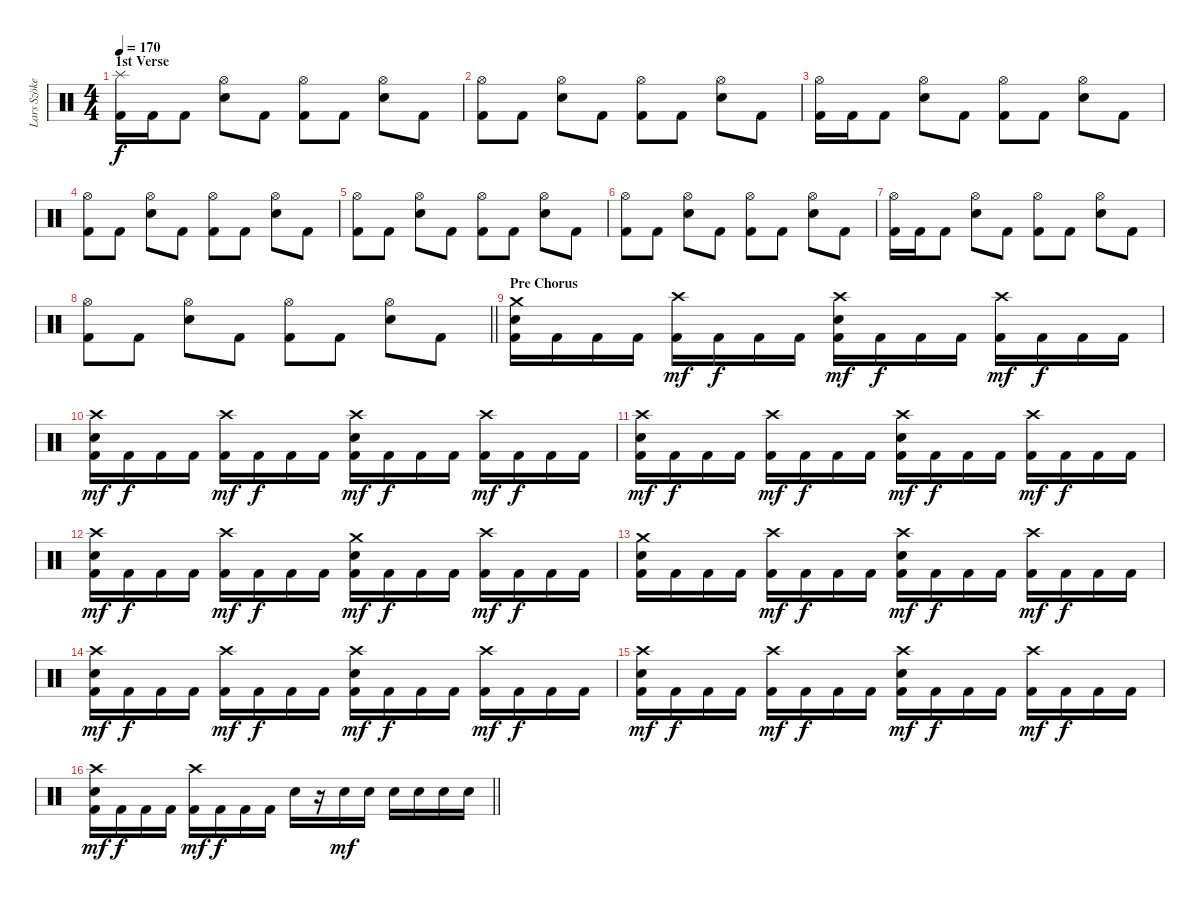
\track ("Lars Szöke" "Lars Szöke") {instrument percussion}
\staff {score}
\articulation defaults
\ts (4 4)
\section ("" "1st Verse")
\tempo 170
\clef neutral
\ks c
("Splash (hit)" "Kick (hit) 2").16{dy f} "Kick (hit) 2".16 "Kick (hit) 2".8 ("Hi-Hat (open)" "Snare (hit) 2").8 "Kick (hit) 2".8 ("Hi-Hat (open)" "Kick (hit) 2").8 "Kick (hit) 2".8 ("Hi-Hat (open)" "Snare (hit) 2").8 "Kick (hit) 2".8 |
("Hi-Hat (open)" "Kick (hit) 2").8 "Kick (hit) 2".8 ("Hi-Hat (open)" "Snare (hit) 2").8 "Kick (hit) 2".8 ("Hi-Hat (open)" "Kick (hit) 2").8 "Kick (hit) 2".8 ("Hi-Hat (open)" "Snare (hit) 2").8 "Kick (hit) 2".8 |
("Hi-Hat (open)" "Kick (hit) 2").16 "Kick (hit) 2".16 "Kick (hit) 2".8 ("Hi-Hat (open)" "Snare (hit) 2").8 "Kick (hit) 2".8 ("Hi-Hat (open)" "Kick (hit) 2").8 "Kick (hit) 2".8 ("Hi-Hat (open)" "Snare (hit) 2").8 "Kick (hit) 2".8 |
("Hi-Hat (open)" "Kick (hit) 2").8 "Kick (hit) 2".8 ("Hi-Hat (open)" "Snare (hit) 2").8 "Kick (hit) 2".8 ("Hi-Hat (open)" "Kick (hit) 2").8 "Kick (hit) 2".8 ("Hi-Hat (open)" "Snare (hit) 2").8 "Kick (hit) 2".8 |
("Hi-Hat (open)" "Kick (hit) 2").8 "Kick (hit) 2".8 ("Hi-Hat (open)" "Snare (hit) 2").8 "Kick (hit) 2".8 ("Hi-Hat (open)" "Kick (hit) 2").8 "Kick (hit) 2".8 ("Hi-Hat (open)" "Snare (hit) 2").8 "Kick (hit) 2".8 |
("Hi-Hat (open)" "Kick (hit) 2").8 "Kick (hit) 2".8 ("Hi-Hat (open)" "Snare (hit) 2").8 "Kick (hit) 2".8 ("Hi-Hat (open)" "Kick (hit) 2").8 "Kick (hit) 2".8 ("Hi-Hat (open)" "Snare (hit) 2").8 "Kick (hit) 2".8 |
("Hi-Hat (open)" "Kick (hit) 2").16 "Kick (hit) 2".16 "Kick (hit) 2".8 ("Hi-Hat (open)" "Snare (hit) 2").8 "Kick (hit) 2".8 ("Hi-Hat (open)" "Kick (hit) 2").8 "Kick (hit) 2".8 ("Hi-Hat (open)" "Snare (hit) 2").8 "Kick (hit) 2".8 |
\barLineRight lightlight
("Hi-Hat (open)" "Kick (hit) 2").8 "Kick (hit) 2".8 ("Hi-Hat (open)" "Snare (hit) 2").8 "Kick (hit) 2".8 ("Hi-Hat (open)" "Kick (hit) 2").8 "Kick (hit) 2".8 ("Hi-Hat (open)" "Snare (hit) 2").8 "Kick (hit) 2".8 |
\section ("" "Pre Chorus")
("Crash medium (hit)" "Snare (hit) 2" "Kick (hit) 2").16 "Kick (hit) 2".16 "Kick (hit) 2".16 "Kick (hit) 2".16 ("Crash high (hit)" "Kick (hit) 2").16{dy mf} "Kick (hit) 2".16{dy f} "Kick (hit) 2".16 "Kick (hit) 2".16 ("Crash high (hit)" "Snare (hit) 2" "Kick (hit) 2").16{dy mf} "Kick (hit) 2".16{dy f} "Kick (hit) 2".16 "Kick (hit) 2".16 ("Crash high (hit)" "Kick (hit) 2").16{dy mf} "Kick (hit) 2".16{dy f} "Kick (hit) 2".16 "Kick (hit) 2".16 |
("Crash high (hit)" "Snare (hit) 2" "Kick (hit) 2").16{dy mf} "Kick (hit) 2".16{dy f} "Kick (hit) 2".16 "Kick (hit) 2".16 ("Crash high (hit)" "Kick (hit) 2").16{dy mf} "Kick (hit) 2".16{dy f} "Kick (hit) 2".16 "Kick (hit) 2".16 ("Crash high (hit)" "Snare (hit) 2" "Kick (hit) 2").16{dy mf} "Kick (hit) 2".16{dy f} "Kick (hit) 2".16 "Kick (hit) 2".16 ("Crash high (hit)" "Kick (hit) 2").16{dy mf} "Kick (hit) 2".16{dy f} "Kick (hit) 2".16 "Kick (hit) 2".16 |
("Crash high (hit)" "Snare (hit) 2" "Kick (hit) 2").16{dy mf} "Kick (hit) 2".16{dy f} "Kick (hit) 2".16 "Kick (hit) 2".16 ("Crash high (hit)" "Kick (hit) 2").16{dy mf} "Kick (hit) 2".16{dy f} "Kick (hit) 2".16 "Kick (hit) 2".16 ("Crash high (hit)" "Snare (hit) 2" "Kick (hit) 2").16{dy mf} "Kick (hit) 2".16{dy f} "Kick (hit) 2".16 "Kick (hit) 2".16 ("Crash high (hit)" "Kick (hit) 2").16{dy mf} "Kick (hit) 2".16{dy f} "Kick (hit) 2".16 "Kick (hit) 2".16 |
("Crash high (hit)" "Snare (hit) 2" "Kick (hit) 2").16{dy mf} "Kick (hit) 2".16{dy f} "Kick (hit) 2".16 "Kick (hit) 2".16 ("Crash high (hit)" "Kick (hit) 2").16{dy mf} "Kick (hit) 2".16{dy f} "Kick (hit) 2".16 "Kick (hit) 2".16 ("Crash medium (hit)" "Snare (hit) 2" "Kick (hit) 2").16{dy mf} "Kick (hit) 2".16{dy f} "Kick (hit) 2".16 "Kick (hit) 2".16 ("Crash high (hit)" "Kick (hit) 2").16{dy mf} "Kick (hit) 2".16{dy f} "Kick (hit) 2".16 "Kick (hit) 2".16 |
("Crash medium (hit)" "Snare (hit) 2" "Kick (hit) 2").16 "Kick (hit) 2".16 "Kick (hit) 2".16 "Kick (hit) 2".16 ("Crash high (hit)" "Kick (hit) 2").16{dy mf} "Kick (hit) 2".16{dy f} "Kick (hit) 2".16 "Kick (hit) 2".16 ("Crash high (hit)" "Snare (hit) 2" "Kick (hit) 2").16{dy mf} "Kick (hit) 2".16{dy f} "Kick (hit) 2".16 "Kick (hit) 2".16 ("Crash high (hit)" "Kick (hit) 2").16{dy mf} "Kick (hit) 2".16{dy f} "Kick (hit) 2".16 "Kick (hit) 2".16 |
("Crash high (hit)" "Snare (hit) 2" "Kick (hit) 2").16{dy mf} "Kick (hit) 2".16{dy f} "Kick (hit) 2".16 "Kick (hit) 2".16 ("Crash high (hit)" "Kick (hit) 2").16{dy mf} "Kick (hit) 2".16{dy f} "Kick (hit) 2".16 "Kick (hit) 2".16 ("Crash high (hit)" "Snare (hit) 2" "Kick (hit) 2").16{dy mf} "Kick (hit) 2".16{dy f} "Kick (hit) 2".16 "Kick (hit) 2".16 ("Crash high (hit)" "Kick (hit) 2").16{dy mf} "Kick (hit) 2".16{dy f} "Kick (hit) 2".16 "Kick (hit) 2".16 |
("Crash high (hit)" "Snare (hit) 2" "Kick (hit) 2").16{dy mf} "Kick (hit) 2".16{dy f} "Kick (hit) 2".16 "Kick (hit) 2".16 ("Crash high (hit)" "Kick (hit) 2").16{dy mf} "Kick (hit) 2".16{dy f} "Kick (hit) 2".16 "Kick (hit) 2".16 ("Crash high (hit)" "Snare (hit) 2" "Kick (hit) 2").16{dy mf} "Kick (hit) 2".16{dy f} "Kick (hit) 2".16 "Kick (hit) 2".16 ("Crash high (hit)" "Kick (hit) 2").16{dy mf} "Kick (hit) 2".16{dy f} "Kick (hit) 2".16 "Kick (hit) 2".16 |
\barLineRight lightlight
("Crash high (hit)" "Snare (hit) 2" "Kick (hit) 2").16{dy mf} "Kick (hit) 2".16{dy f} "Kick (hit) 2".16 "Kick (hit) 2".16 ("Crash high (hit)" "Kick (hit) 2").16{dy mf} "Kick (hit) 2".16{dy f} "Kick (hit) 2".16 "Kick (hit) 2".16 "Snare (hit) 2".16 r.16 "Snare (hit) 2".16{dy mf} "Snare (hit) 2".16 "Snare (hit) 2".16 "Snare (hit) 2".16 "Snare (hit) 2".16 "Snare (hit) 2".16
